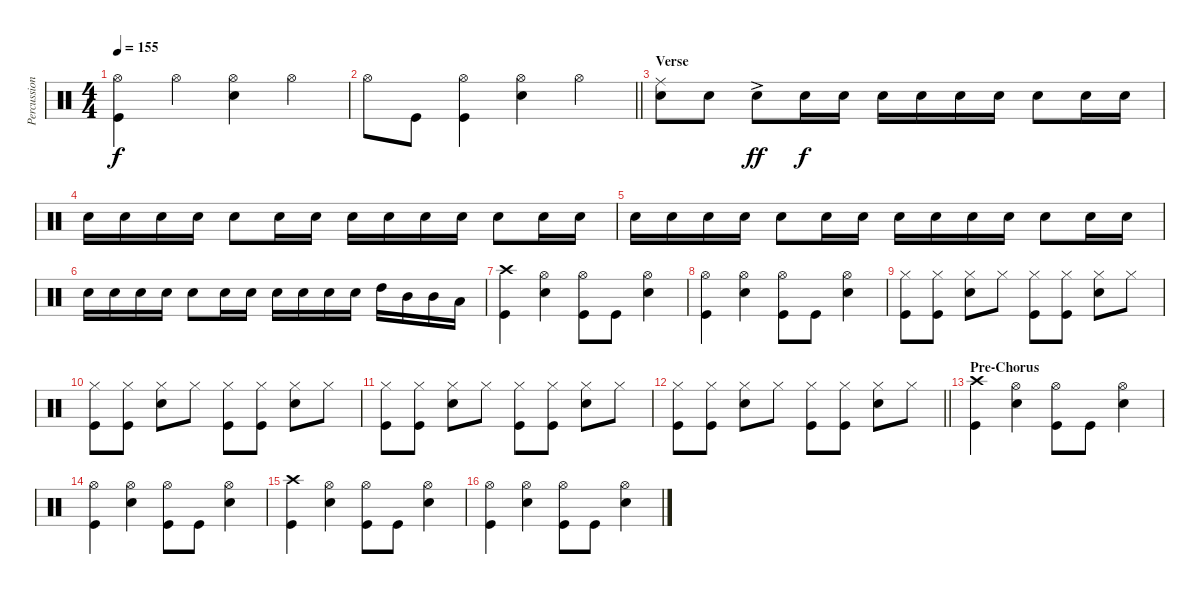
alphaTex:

\track ("Percussion" "Percussion") {instrument percussion}
\staff {score}
\articulation defaults
\ts (4 4)
\tempo 155
\clef neutral
\ks c
("Hi-Hat (open)" "Kick (hit)").4{dy f} "Hi-Hat (open)".4 ("Hi-Hat (open)" "Snare (hit) 2").4 "Hi-Hat (open)".4 |
\barLineRight lightlight "Hi-Hat (open)".8 "Kick (hit)".8
("Hi-Hat (open)" "Kick (hit)").4 ("Hi-Hat (open)" "Snare (hit) 2").4 "Hi-Hat (open)".4 |
\section ("" "Verse")
("Ride (middle)" "Snare (hit) 2").8 "Snare (hit) 2".8 "Snare (hit) 2"{ac}.8{dy ff} "Snare (hit) 2".16{dy f} "Snare (hit) 2".16 "Snare (hit) 2".16 "Snare (hit) 2".16 "Snare (hit) 2".16 "Snare (hit) 2".16 "Snare (hit) 2".8 "Snare (hit) 2".16 "Snare (hit) 2".16 |
"Snare (hit) 2".16 "Snare (hit) 2".16 "Snare (hit) 2".16 "Snare (hit) 2".16 "Snare (hit) 2".8 "Snare (hit) 2".16 "Snare (hit) 2".16 "Snare (hit) 2".16 "Snare (hit) 2".16 "Snare (hit) 2".16 "Snare (hit) 2".16 "Snare (hit) 2".8 "Snare (hit) 2".16 "Snare (hit) 2".16 |
"Snare (hit) 2".16 "Snare (hit) 2".16 "Snare (hit) 2".16 "Snare (hit) 2".16 "Snare (hit) 2".8 "Snare (hit) 2".16 "Snare (hit) 2".16 "Snare (hit) 2".16 "Snare (hit) 2".16 "Snare (hit) 2".16 "Snare (hit) 2".16 "Snare (hit) 2".8 "Snare (hit) 2".16 "Snare (hit) 2".16 |
"Snare (hit) 2".16 "Snare (hit) 2".16 "Snare (hit) 2".16 "Snare (hit) 2".16 "Snare (hit) 2".8 "Snare (hit) 2".16 "Snare (hit) 2".16 "Snare (hit) 2".16 "Snare (hit) 2".16 "Snare (hit) 2".16 "Snare (hit) 2".16 "High Tom (hit)".16 "Mid Tom (hit)".16 "Mid Tom (hit)".16 "Low Tom (hit)".16 |
("Crash high (hit)" "Kick (hit)").4 ("Hi-Hat (open)" "Snare (hit) 2").4 ("Hi-Hat (open)" "Kick (hit)").8 "Kick (hit)".8 ("Hi-Hat (open)" "Snare (hit) 2").4 |
("Hi-Hat (open)" "Kick (hit)").4 ("Hi-Hat (open)" "Snare (hit) 2").4 ("Hi-Hat (open)" "Kick (hit)").8 "Kick (hit)".8 ("Hi-Hat (open)" "Snare (hit) 2").4 |
("Hi-Hat (closed)" "Kick (hit)").8 ("Hi-Hat (closed)" "Kick (hit)").8 ("Hi-Hat (closed)" "Snare (hit) 2").8 "Hi-Hat (closed)".8 ("Hi-Hat (closed)" "Kick (hit)").8 ("Hi-Hat (closed)" "Kick (hit)").8 ("Hi-Hat (closed)" "Snare (hit) 2").8 "Hi-Hat (closed)".8 |
("Hi-Hat (closed)" "Kick (hit)").8 ("Hi-Hat (closed)" "Kick (hit)").8 ("Hi-Hat (closed)" "Snare (hit) 2").8 "Hi-Hat (closed)".8 ("Hi-Hat (closed)" "Kick (hit)").8 ("Hi-Hat (closed)" "Kick (hit)").8 ("Hi-Hat (closed)" "Snare (hit) 2").8 "Hi-Hat (closed)".8 |
("Hi-Hat (closed)" "Kick (hit)").8 ("Hi-Hat (closed)" "Kick (hit)").8 ("Hi-Hat (closed)" "Snare (hit) 2").8 "Hi-Hat (closed)".8 ("Hi-Hat (closed)" "Kick (hit)").8 ("Hi-Hat (closed)" "Kick (hit)").8 ("Hi-Hat (closed)" "Snare (hit) 2").8 "Hi-Hat (closed)".8 |
\barLineRight lightlight
("Hi-Hat (closed)" "Kick (hit)").8 ("Hi-Hat (closed)" "Kick (hit)").8 ("Hi-Hat (closed)" "Snare (hit) 2").8 "Hi-Hat (closed)".8 ("Hi-Hat (closed)" "Kick (hit)").8 ("Hi-Hat (closed)" "Kick (hit)").8 ("Hi-Hat (closed)" "Snare (hit) 2").8 "Hi-Hat (closed)".8 |
\section ("" "Pre-Chorus")
("Crash high (hit)" "Kick (hit)").4 ("Hi-Hat (open)" "Snare (hit) 2").4 ("Hi-Hat (open)" "Kick (hit)").8 "Kick (hit)".8 ("Hi-Hat (open)" "Snare (hit) 2").4 |
("Hi-Hat (open)" "Kick (hit)").4 ("Hi-Hat (open)" "Snare (hit) 2").4 ("Hi-Hat (open)" "Kick (hit)").8 "Kick (hit)".8 ("Hi-Hat (open)" "Snare (hit) 2").4 |
("Crash high (hit)" "Kick (hit)").4 ("Hi-Hat (open)" "Snare (hit) 2").4 ("Hi-Hat (open)" "Kick (hit)").8 "Kick (hit)".8 ("Hi-Hat (open)" "Snare (hit) 2").4 |
("Hi-Hat (open)" "Kick (hit)").4 ("Hi-Hat (open)" "Snare (hit) 2").4 ("Hi-Hat (open)" "Kick (hit)").8 "Kick (hit)".8 ("Hi-Hat (open)" "Snare (hit) 2").4
